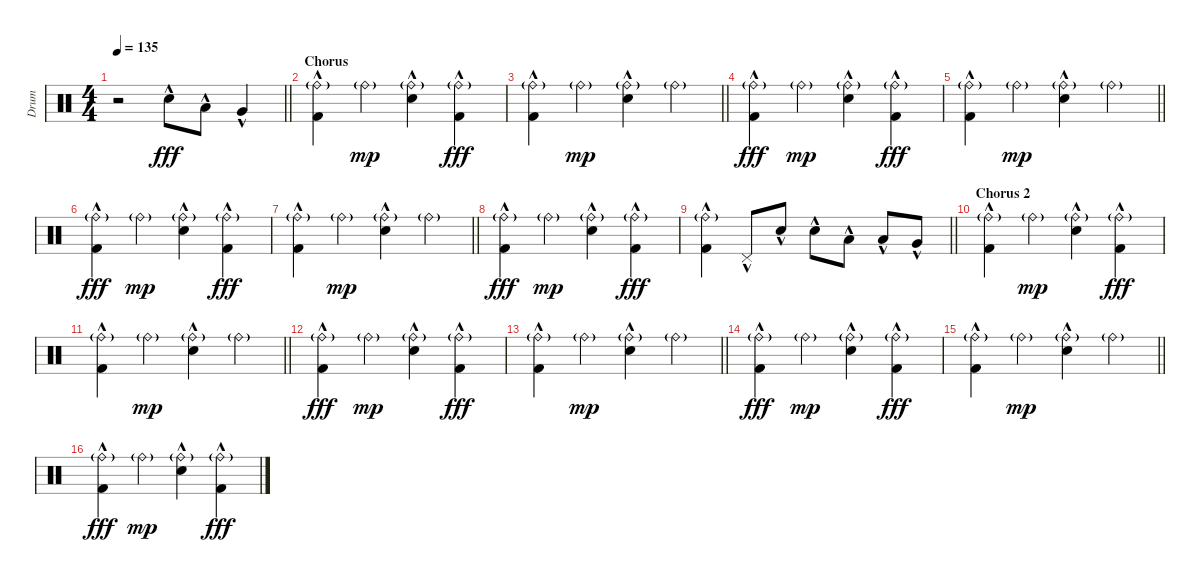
\track ("Drum" "Drum") {instrument percussion}
\staff {score}
\articulation defaults
\ts (4 4)
\tempo 135
\clef neutral
\barLineRight lightlight
\ks c
r.2{dy f} "Electric Snare (hit)"{hac}.8{dy fff} "Low Tom (hit)"{hac}.8 "Very Low Tom (hit)"{hac}.4 |
\section ("" "Chorus")
("Ride (bell)"{g} "Kick (hit) 2"{hac}).4 "Ride (bell)"{g}.4{dy mp} ("Electric Snare (hit)"{hac} "Ride (bell)"{g}).4 ("Ride (bell)"{g} "Kick (hit) 2"{hac}).4{dy fff} |
\barLineRight lightlight
("Ride (bell)"{g} "Kick (hit) 2"{hac}).4 "Ride (bell)"{g}.4{dy mp} ("Electric Snare (hit)"{hac} "Ride (bell)"{g}).4 "Ride (bell)"{g}.4 |
("Ride (bell)"{g} "Kick (hit) 2"{hac}).4{dy fff} "Ride (bell)"{g}.4{dy mp} ("Electric Snare (hit)"{hac} "Ride (bell)"{g}).4 ("Ride (bell)"{g} "Kick (hit) 2"{hac}).4{dy fff} |
\barLineRight lightlight
("Ride (bell)"{g} "Kick (hit) 2"{hac}).4 "Ride (bell)"{g}.4{dy mp} ("Electric Snare (hit)"{hac} "Ride (bell)"{g}).4 "Ride (bell)"{g}.4 |
("Ride (bell)"{g} "Kick (hit) 2"{hac}).4{dy fff} "Ride (bell)"{g}.4{dy mp} ("Electric Snare (hit)"{hac} "Ride (bell)"{g}).4 ("Ride (bell)"{g} "Kick (hit) 2"{hac}).4{dy fff} |
\barLineRight lightlight
("Ride (bell)"{g} "Kick (hit) 2"{hac}).4 "Ride (bell)"{g}.4{dy mp} ("Electric Snare (hit)"{hac} "Ride (bell)"{g}).4 "Ride (bell)"{g}.4 |
("Ride (bell)"{g} "Kick (hit) 2"{hac}).4{dy fff} "Ride (bell)"{g}.4{dy mp} ("Electric Snare (hit)"{hac} "Ride (bell)"{g}).4 ("Ride (bell)"{g} "Kick (hit) 2"{hac}).4{dy fff} |
\barLineRight lightlight
("Ride (bell)"{g} "Kick (hit) 2"{hac}).4 "Pedal Hi-Hat (hit)"{hac}.8 "Electric Snare (hit)"{hac}.8 "Electric Snare (hit)"{hac}.8 "Low Tom (hit)"{hac}.8 "Low Tom (hit)"{hac}.8 "Very Low Tom (hit)"{hac}.8 |
\section ("" "Chorus 2")
("Ride (bell)"{g} "Kick (hit) 2"{hac}).4 "Ride (bell)"{g}.4{dy mp} ("Electric Snare (hit)"{hac} "Ride (bell)"{g}).4 ("Ride (bell)"{g} "Kick (hit) 2"{hac}).4{dy fff} |
\barLineRight lightlight
("Ride (bell)"{g} "Kick (hit) 2"{hac}).4 "Ride (bell)"{g}.4{dy mp} ("Electric Snare (hit)"{hac} "Ride (bell)"{g}).4 "Ride (bell)"{g}.4 |
("Ride (bell)"{g} "Kick (hit) 2"{hac}).4{dy fff} "Ride (bell)"{g}.4{dy mp} ("Electric Snare (hit)"{hac} "Ride (bell)"{g}).4 ("Ride (bell)"{g} "Kick (hit) 2"{hac}).4{dy fff} |
\barLineRight lightlight
("Ride (bell)"{g} "Kick (hit) 2"{hac}).4 "Ride (bell)"{g}.4{dy mp} ("Electric Snare (hit)"{hac} "Ride (bell)"{g}).4 "Ride (bell)"{g}.4 |
("Ride (bell)"{g} "Kick (hit) 2"{hac}).4{dy fff} "Ride (bell)"{g}.4{dy mp} ("Electric Snare (hit)"{hac} "Ride (bell)"{g}).4 ("Ride (bell)"{g} "Kick (hit) 2"{hac}).4{dy fff} |
\barLineRight lightlight
("Ride (bell)"{g} "Kick (hit) 2"{hac}).4 "Ride (bell)"{g}.4{dy mp} ("Electric Snare (hit)"{hac} "Ride (bell)"{g}).4 "Ride (bell)"{g}.4 |
("Ride (bell)"{g} "Kick (hit) 2"{hac}).4{dy fff} "Ride (bell)"{g}.4{dy mp} ("Electric Snare (hit)"{hac} "Ride (bell)"{g}).4 ("Ride (bell)"{g} "Kick (hit) 2"{hac}).4{dy fff}
